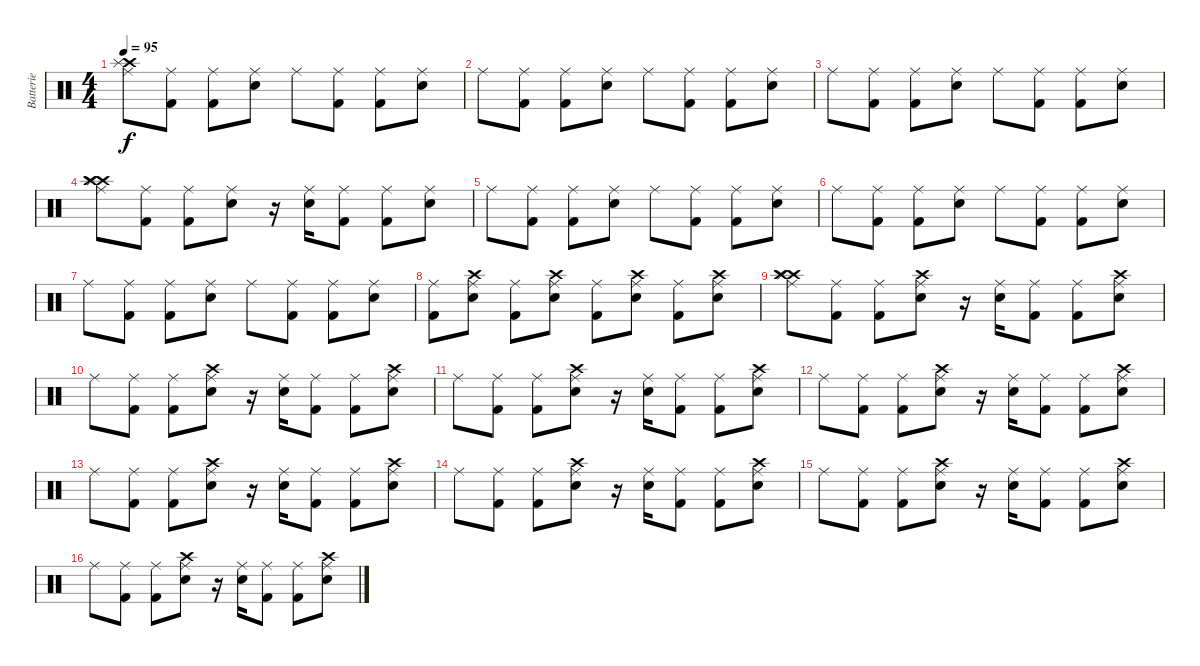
\track ("Batterie" "Batterie") {instrument percussion}
\staff {score}
\articulation defaults
\ts (4 4)
\tempo 95
\clef neutral
\ks c
("Ride (middle)" "Crash high (hit)" "Splash (hit)").8{dy f} ("Ride (middle)" "Kick (hit) 2").8 ("Ride (middle)" "Kick (hit) 2").8 ("Ride (middle)" "Electric Snare (hit)").8 "Ride (middle)".8 ("Ride (middle)" "Kick (hit) 2").8 ("Ride (middle)" "Kick (hit) 2").8 ("Ride (middle)" "Electric Snare (hit)").8 |
"Ride (middle)".8 ("Ride (middle)" "Kick (hit) 2").8 ("Ride (middle)" "Kick (hit) 2").8 ("Ride (middle)" "Electric Snare (hit)").8 "Ride (middle)".8 ("Ride (middle)" "Kick (hit) 2").8 ("Ride (middle)" "Kick (hit) 2").8 ("Ride (middle)" "Electric Snare (hit)").8 |
"Ride (middle)".8 ("Ride (middle)" "Kick (hit) 2").8 ("Ride (middle)" "Kick (hit) 2").8 ("Ride (middle)" "Electric Snare (hit)").8 "Ride (middle)".8 ("Ride (middle)" "Kick (hit) 2").8 ("Ride (middle)" "Kick (hit) 2").8 ("Ride (middle)" "Electric Snare (hit)").8 |
("Ride (middle)" "Crash high (hit)" "Crash high (hit)" "Splash (hit)").8 ("Ride (middle)" "Kick (hit) 2").8 ("Ride (middle)" "Kick (hit) 2").8 ("Ride (middle)" "Electric Snare (hit)").8 r.16 ("Ride (middle)" "Electric Snare (hit)").16 ("Ride (middle)" "Kick (hit) 2").8 ("Ride (middle)" "Kick (hit) 2").8 ("Ride (middle)" "Electric Snare (hit)").8 |
"Ride (middle)".8 ("Ride (middle)" "Kick (hit) 2").8 ("Ride (middle)" "Kick (hit) 2").8 ("Ride (middle)" "Electric Snare (hit)").8 "Ride (middle)".8 ("Ride (middle)" "Kick (hit) 2").8 ("Ride (middle)" "Kick (hit) 2").8 ("Ride (middle)" "Electric Snare (hit)").8 |
"Ride (middle)".8 ("Ride (middle)" "Kick (hit) 2").8 ("Ride (middle)" "Kick (hit) 2").8 ("Ride (middle)" "Electric Snare (hit)").8 "Ride (middle)".8 ("Ride (middle)" "Kick (hit) 2").8 ("Ride (middle)" "Kick (hit) 2").8 ("Ride (middle)" "Electric Snare (hit)").8 |
"Ride (middle)".8 ("Ride (middle)" "Kick (hit) 2").8 ("Ride (middle)" "Kick (hit) 2").8 ("Ride (middle)" "Electric Snare (hit)").8 "Ride (middle)".8 ("Ride (middle)" "Kick (hit) 2").8 ("Ride (middle)" "Kick (hit) 2").8 ("Ride (middle)" "Electric Snare (hit)").8 |
("Ride (middle)" "Kick (hit) 2").8 ("Ride (middle)" "Crash high (hit)" "Electric Snare (hit)").8 ("Ride (middle)" "Kick (hit) 2").8 ("Ride (middle)" "Crash high (hit)" "Electric Snare (hit)").8 ("Ride (middle)" "Kick (hit) 2").8 ("Ride (middle)" "Crash high (hit)" "Electric Snare (hit)").8 ("Ride (middle)" "Kick (hit) 2").8 ("Ride (middle)" "Crash high (hit)" "Electric Snare (hit)").8 |
("Ride (middle)" "Crash high (hit)" "Crash high (hit)" "Splash (hit)").8 ("Ride (middle)" "Kick (hit) 2").8 ("Ride (middle)" "Kick (hit) 2").8 ("Ride (middle)" "Crash high (hit)" "Electric Snare (hit)").8 r.16 ("Ride (middle)" "Electric Snare (hit)").16 ("Ride (middle)" "Kick (hit) 2").8 ("Ride (middle)" "Kick (hit) 2").8 ("Ride (middle)" "Crash high (hit)" "Electric Snare (hit)").8 |
"Ride (middle)".8 ("Ride (middle)" "Kick (hit) 2").8 ("Ride (middle)" "Kick (hit) 2").8 ("Ride (middle)" "Crash high (hit)" "Electric Snare (hit)").8 r.16 ("Ride (middle)" "Electric Snare (hit)").16 ("Ride (middle)" "Kick (hit) 2").8 ("Ride (middle)" "Kick (hit) 2").8 ("Ride (middle)" "Crash high (hit)" "Electric Snare (hit)").8 |
"Ride (middle)".8 ("Ride (middle)" "Kick (hit) 2").8 ("Ride (middle)" "Kick (hit) 2").8 ("Ride (middle)" "Crash high (hit)" "Electric Snare (hit)").8 r.16 ("Ride (middle)" "Electric Snare (hit)").16 ("Ride (middle)" "Kick (hit) 2").8 ("Ride (middle)" "Kick (hit) 2").8 ("Ride (middle)" "Crash high (hit)" "Electric Snare (hit)").8 |
"Ride (middle)".8 ("Ride (middle)" "Kick (hit) 2").8 ("Ride (middle)" "Kick (hit) 2").8 ("Ride (middle)" "Crash high (hit)" "Electric Snare (hit)").8 r.16 ("Ride (middle)" "Electric Snare (hit)").16 ("Ride (middle)" "Kick (hit) 2").8 ("Ride (middle)" "Kick (hit) 2").8 ("Ride (middle)" "Crash high (hit)" "Electric Snare (hit)").8 |
"Ride (middle)".8 ("Ride (middle)" "Kick (hit) 2").8 ("Ride (middle)" "Kick (hit) 2").8 ("Ride (middle)" "Crash high (hit)" "Electric Snare (hit)").8 r.16 ("Ride (middle)" "Electric Snare (hit)").16 ("Ride (middle)" "Kick (hit) 2").8 ("Ride (middle)" "Kick (hit) 2").8 ("Ride (middle)" "Crash high (hit)" "Electric Snare (hit)").8 |
"Ride (middle)".8 ("Ride (middle)" "Kick (hit) 2").8 ("Ride (middle)" "Kick (hit) 2").8 ("Ride (middle)" "Crash high (hit)" "Electric Snare (hit)").8 r.16 ("Ride (middle)" "Electric Snare (hit)").16 ("Ride (middle)" "Kick (hit) 2").8 ("Ride (middle)" "Kick (hit) 2").8 ("Ride (middle)" "Crash high (hit)" "Electric Snare (hit)").8 |
"Ride (middle)".8 ("Ride (middle)" "Kick (hit) 2").8 ("Ride (middle)" "Kick (hit) 2").8 ("Ride (middle)" "Crash high (hit)" "Electric Snare (hit)").8 r.16 ("Ride (middle)" "Electric Snare (hit)").16 ("Ride (middle)" "Kick (hit) 2").8 ("Ride (middle)" "Kick (hit) 2").8 ("Ride (middle)" "Crash high (hit)" "Electric Snare (hit)").8 |
"Ride (middle)".8 ("Ride (middle)" "Kick (hit) 2").8 ("Ride (middle)" "Kick (hit) 2").8 ("Ride (middle)" "Crash high (hit)" "Electric Snare (hit)").8 r.16 ("Ride (middle)" "Electric Snare (hit)").16 ("Ride (middle)" "Kick (hit) 2").8 ("Ride (middle)" "Kick (hit) 2").8 ("Ride (middle)" "Crash high (hit)" "Electric Snare (hit)").8
